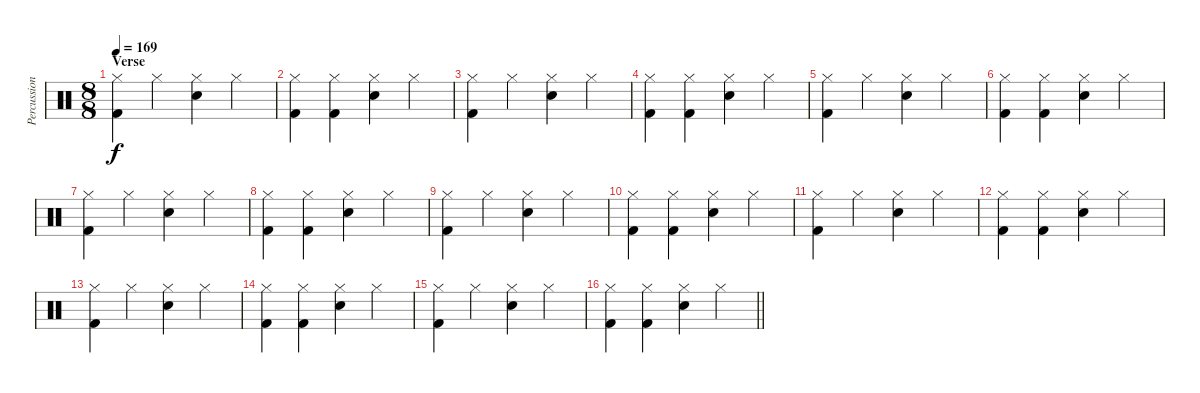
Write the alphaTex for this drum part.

\track ("Percussion" "Percussion") {instrument percussion}
\staff {score}
\articulation defaults
\ts (8 8)
\section ("" "Verse")
\tempo 169
\clef neutral
\ks c
("Hi-Hat (closed)" "Kick (hit) 2").4{dy f} "Hi-Hat (closed)".4 ("Hi-Hat (closed)" "Snare (hit) 2").4 "Hi-Hat (closed)".4 |
("Hi-Hat (closed)" "Kick (hit) 2").4 ("Hi-Hat (closed)" "Kick (hit) 2").4 ("Hi-Hat (closed)" "Snare (hit) 2").4 "Hi-Hat (closed)".4 |
("Hi-Hat (closed)" "Kick (hit) 2").4 "Hi-Hat (closed)".4 ("Hi-Hat (closed)" "Snare (hit) 2").4 "Hi-Hat (closed)".4 |
("Hi-Hat (closed)" "Kick (hit) 2").4 ("Hi-Hat (closed)" "Kick (hit) 2").4 ("Hi-Hat (closed)" "Snare (hit) 2").4 "Hi-Hat (closed)".4 |
("Hi-Hat (closed)" "Kick (hit) 2").4 "Hi-Hat (closed)".4 ("Hi-Hat (closed)" "Snare (hit) 2").4 "Hi-Hat (closed)".4 |
("Hi-Hat (closed)" "Kick (hit) 2").4 ("Hi-Hat (closed)" "Kick (hit) 2").4 ("Hi-Hat (closed)" "Snare (hit) 2").4 "Hi-Hat (closed)".4 |
("Hi-Hat (closed)" "Kick (hit) 2").4 "Hi-Hat (closed)".4 ("Hi-Hat (closed)" "Snare (hit) 2").4 "Hi-Hat (closed)".4 |
("Hi-Hat (closed)" "Kick (hit) 2").4 ("Hi-Hat (closed)" "Kick (hit) 2").4 ("Hi-Hat (closed)" "Snare (hit) 2").4 "Hi-Hat (closed)".4 |
("Hi-Hat (closed)" "Kick (hit) 2").4 "Hi-Hat (closed)".4 ("Hi-Hat (closed)" "Snare (hit) 2").4 "Hi-Hat (closed)".4 |
("Hi-Hat (closed)" "Kick (hit) 2").4 ("Hi-Hat (closed)" "Kick (hit) 2").4 ("Hi-Hat (closed)" "Snare (hit) 2").4 "Hi-Hat (closed)".4 |
("Hi-Hat (closed)" "Kick (hit) 2").4 "Hi-Hat (closed)".4 ("Hi-Hat (closed)" "Snare (hit) 2").4 "Hi-Hat (closed)".4 |
("Hi-Hat (closed)" "Kick (hit) 2").4 ("Hi-Hat (closed)" "Kick (hit) 2").4 ("Hi-Hat (closed)" "Snare (hit) 2").4 "Hi-Hat (closed)".4 |
("Hi-Hat (closed)" "Kick (hit) 2").4 "Hi-Hat (closed)".4 ("Hi-Hat (closed)" "Snare (hit) 2").4 "Hi-Hat (closed)".4 |
("Hi-Hat (closed)" "Kick (hit) 2").4 ("Hi-Hat (closed)" "Kick (hit) 2").4 ("Hi-Hat (closed)" "Snare (hit) 2").4 "Hi-Hat (closed)".4 |
("Hi-Hat (closed)" "Kick (hit) 2").4 "Hi-Hat (closed)".4 ("Hi-Hat (closed)" "Snare (hit) 2").4 "Hi-Hat (closed)".4 |
\barLineRight lightlight
("Hi-Hat (closed)" "Kick (hit) 2").4 ("Hi-Hat (closed)" "Kick (hit) 2").4 ("Hi-Hat (closed)" "Snare (hit) 2").4 "Hi-Hat (closed)".4
